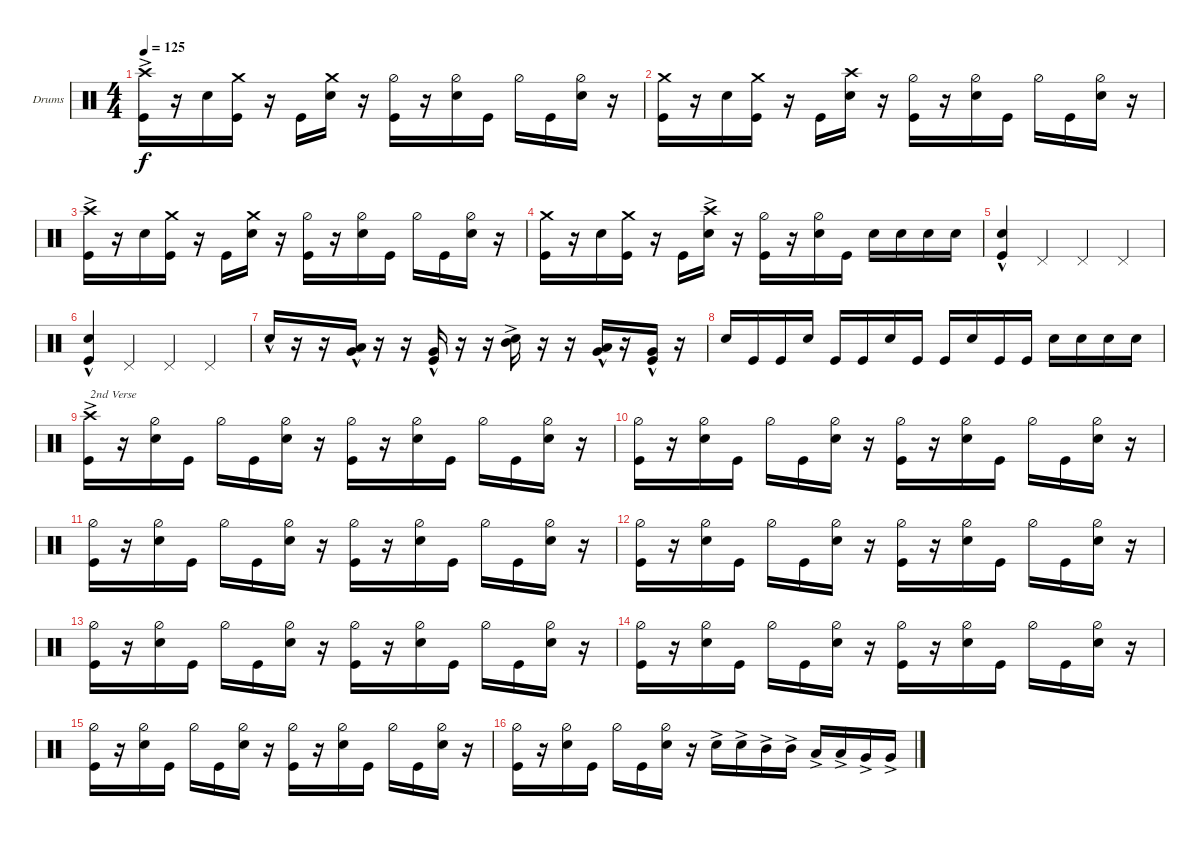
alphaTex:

\defaultSystemsLayout 4
\bracketExtendMode groupsimilarinstruments
\firstSystemTrackNameOrientation horizontal
\otherSystemsTrackNameOrientation horizontal
\track ("Lorenzo Milani" "Drums") {instrument percussion}
\staff {score}
\articulation defaults
\ts (4 4)
\tempo 125
\clef neutral
\ks c
("Kick (hit)"{ac} "Crash high (hit)"{ac}).16{dy f} r.16 "Snare (hit) 2".16 ("Kick (hit)" "Crash medium (hit)").16 r.16 "Kick (hit)".16 ("Snare (hit) 2" "Crash medium (hit)").16 r.16 ("Kick (hit)" "Hi-Hat (half)").16 r.16 ("Snare (hit) 2" "Hi-Hat (half)").16 "Kick (hit)".16 "Hi-Hat (half)".16 "Kick (hit)".16 ("Snare (hit) 2" "Hi-Hat (half)").16 r.16 |
("Kick (hit)" "Crash medium (hit)").16 r.16 "Snare (hit) 2".16 ("Kick (hit)" "Crash medium (hit)").16 r.16 "Kick (hit)".16 ("Snare (hit) 2" "Crash high (hit)").16 r.16 ("Kick (hit)" "Hi-Hat (half)").16 r.16 ("Snare (hit) 2" "Hi-Hat (half)").16 "Kick (hit)".16 "Hi-Hat (half)".16 "Kick (hit)".16 ("Snare (hit) 2" "Hi-Hat (half)").16 r.16 |
("Kick (hit)"{ac} "Crash high (hit)"{ac}).16 r.16 "Snare (hit) 2".16 ("Kick (hit)" "Crash medium (hit)").16 r.16 "Kick (hit)".16 ("Snare (hit) 2" "Crash medium (hit)").16 r.16 ("Kick (hit)" "Hi-Hat (half)").16 r.16 ("Snare (hit) 2" "Hi-Hat (half)").16 "Kick (hit)".16 "Hi-Hat (half)".16 "Kick (hit)".16 ("Snare (hit) 2" "Hi-Hat (half)").16 r.16 |
("Kick (hit)" "Crash medium (hit)").16 r.16 "Snare (hit) 2".16 ("Kick (hit)" "Crash medium (hit)").16 r.16 "Kick (hit)".16 ("Snare (hit) 2"{ac} "Crash high (hit)"{ac}).16 r.16 ("Kick (hit)" "Hi-Hat (half)").16 r.16 ("Snare (hit) 2" "Hi-Hat (half)").16 "Kick (hit)".16 "Snare (hit) 2".16 "Snare (hit) 2".16 "Snare (hit) 2".16 "Snare (hit) 2".16 |
("Kick (hit)"{hac} "Snare (hit) 2"{hac}).4 "Pedal Hi-Hat (hit)".4 "Pedal Hi-Hat (hit)".4 "Pedal Hi-Hat (hit)".4 |
("Kick (hit)"{hac} "Snare (hit) 2"{hac}).4 "Pedal Hi-Hat (hit)".4 "Pedal Hi-Hat (hit)".4 "Pedal Hi-Hat (hit)".4 |
"Snare (hit) 2"{hac}.16 r.16 r.16 ("Low Tom (hit)"{hac} "Very Low Tom (hit)").16 r.16 r.16 ("Very Low Tom (hit)"{hac} "Kick (hit)").16 r.16 r.16 ("Snare (hit) 2"{ac} "Mid Tom (hit)").16 r.16 r.16 ("Low Tom (hit)"{hac} "Very Low Tom (hit)").16 r.16 ("Very Low Tom (hit)"{hac} "Kick (hit)").16 r.16 |
"Snare (hit) 2".16 "Kick (hit)".16 "Kick (hit)".16 "Snare (hit) 2".16 "Kick (hit)".16 "Kick (hit)".16 "Snare (hit) 2".16 "Kick (hit)".16 "Kick (hit)".16 "Snare (hit) 2".16 "Kick (hit)".16 "Kick (hit)".16 "Snare (hit) 2".16 "Snare (hit) 2".16 "Snare (hit) 2".16 "Snare (hit) 2".16 |
("Kick (hit)"{ac} "Crash high (hit)"{ac}).16{txt "2nd Verse"} r.16 ("Snare (hit) 2" "Hi-Hat (half)").16 "Kick (hit)".16 "Hi-Hat (half)".16 "Kick (hit)".16 ("Snare (hit) 2" "Hi-Hat (half)").16 r.16 ("Kick (hit)" "Hi-Hat (half)").16 r.16 ("Snare (hit) 2" "Hi-Hat (half)").16 "Kick (hit)".16 "Hi-Hat (half)".16 "Kick (hit)".16 ("Snare (hit) 2" "Hi-Hat (half)").16 r.16 |
("Kick (hit)" "Hi-Hat (half)").16 r.16 ("Snare (hit) 2" "Hi-Hat (half)").16 "Kick (hit)".16 "Hi-Hat (half)".16 "Kick (hit)".16 ("Snare (hit) 2" "Hi-Hat (half)").16 r.16 ("Kick (hit)" "Hi-Hat (half)").16 r.16 ("Snare (hit) 2" "Hi-Hat (half)").16 "Kick (hit)".16 "Hi-Hat (half)".16 "Kick (hit)".16 ("Snare (hit) 2" "Hi-Hat (half)").16 r.16 |
("Kick (hit)" "Hi-Hat (half)").16 r.16 ("Snare (hit) 2" "Hi-Hat (half)").16 "Kick (hit)".16 "Hi-Hat (half)".16 "Kick (hit)".16 ("Snare (hit) 2" "Hi-Hat (half)").16 r.16 ("Kick (hit)" "Hi-Hat (half)").16 r.16 ("Snare (hit) 2" "Hi-Hat (half)").16 "Kick (hit)".16 "Hi-Hat (half)".16 "Kick (hit)".16 ("Snare (hit) 2" "Hi-Hat (half)").16 r.16 |
("Kick (hit)" "Hi-Hat (half)").16 r.16 ("Snare (hit) 2" "Hi-Hat (half)").16 "Kick (hit)".16 "Hi-Hat (half)".16 "Kick (hit)".16 ("Snare (hit) 2" "Hi-Hat (half)").16 r.16 ("Kick (hit)" "Hi-Hat (half)").16 r.16 ("Snare (hit) 2" "Hi-Hat (half)").16 "Kick (hit)".16 "Hi-Hat (half)".16 "Kick (hit)".16 ("Snare (hit) 2" "Hi-Hat (half)").16 r.16 |
("Kick (hit)" "Hi-Hat (half)").16 r.16 ("Snare (hit) 2" "Hi-Hat (half)").16 "Kick (hit)".16 "Hi-Hat (half)".16 "Kick (hit)".16 ("Snare (hit) 2" "Hi-Hat (half)").16 r.16 ("Kick (hit)" "Hi-Hat (half)").16 r.16 ("Snare (hit) 2" "Hi-Hat (half)").16 "Kick (hit)".16 "Hi-Hat (half)".16 "Kick (hit)".16 ("Snare (hit) 2" "Hi-Hat (half)").16 r.16 |
("Kick (hit)" "Hi-Hat (half)").16 r.16 ("Snare (hit) 2" "Hi-Hat (half)").16 "Kick (hit)".16 "Hi-Hat (half)".16 "Kick (hit)".16 ("Snare (hit) 2" "Hi-Hat (half)").16 r.16 ("Kick (hit)" "Hi-Hat (half)").16 r.16 ("Snare (hit) 2" "Hi-Hat (half)").16 "Kick (hit)".16 "Hi-Hat (half)".16 "Kick (hit)".16 ("Snare (hit) 2" "Hi-Hat (half)").16 r.16 |
("Kick (hit)" "Hi-Hat (half)").16 r.16 ("Snare (hit) 2" "Hi-Hat (half)").16 "Kick (hit)".16 "Hi-Hat (half)".16 "Kick (hit)".16 ("Snare (hit) 2" "Hi-Hat (half)").16 r.16 ("Kick (hit)" "Hi-Hat (half)").16 r.16 ("Snare (hit) 2" "Hi-Hat (half)").16 "Kick (hit)".16 "Hi-Hat (half)".16 "Kick (hit)".16 ("Snare (hit) 2" "Hi-Hat (half)").16 r.16 |
("Kick (hit)" "Hi-Hat (half)").16 r.16 ("Snare (hit) 2" "Hi-Hat (half)").16 "Kick (hit)".16 "Hi-Hat (half)".16 "Kick (hit)".16 ("Snare (hit) 2" "Hi-Hat (half)").16 r.16 "Snare (hit) 2"{ac}.16 "Snare (hit) 2"{ac}.16 "Mid Tom (hit)"{ac}.16 "Mid Tom (hit)"{ac}.16 "Low Tom (hit)"{ac}.16 "Low Tom (hit)"{ac}.16 "Very Low Tom (hit)"{ac}.16 "Very Low Tom (hit)"{ac}.16
